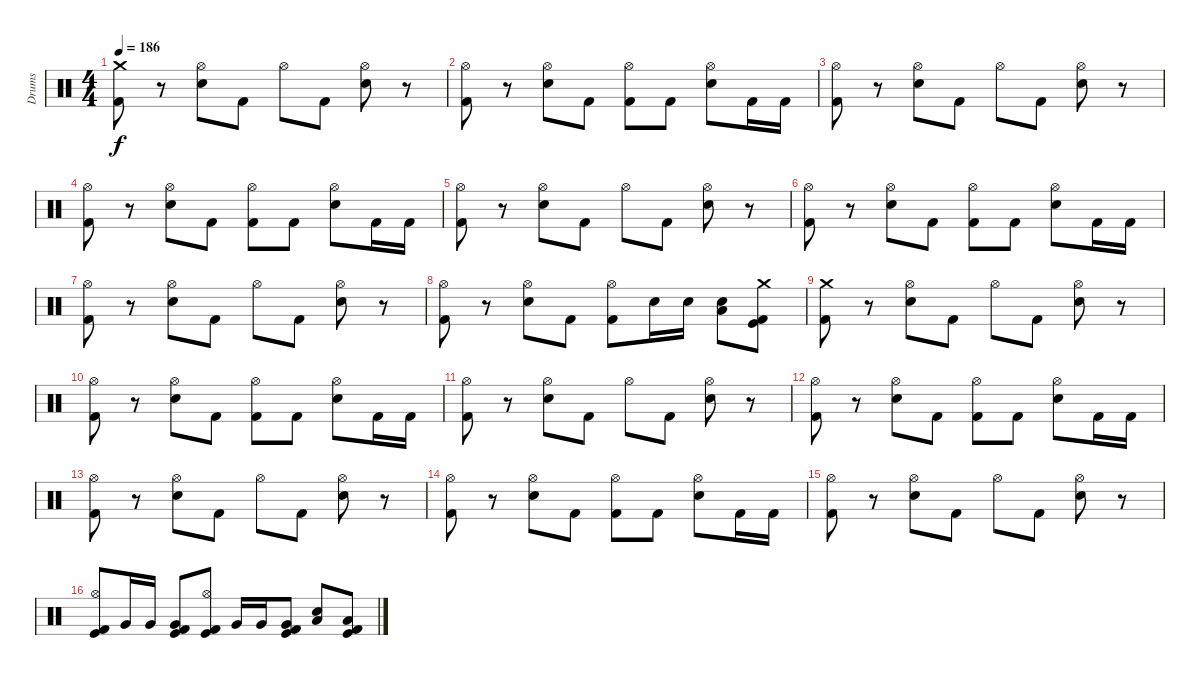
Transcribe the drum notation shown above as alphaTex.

\track ("Drums" "Drums") {instrument percussion}
\staff {score}
\articulation defaults
\ts (4 4)
\tempo 186
\clef neutral
\ks c
("Crash medium (hit)" "Kick (hit) 2").8{dy f} r.8 ("Hi-Hat (open)" "Snare (hit) 2").8 "Kick (hit) 2".8 "Hi-Hat (open)".8 "Kick (hit) 2".8 ("Hi-Hat (open)" "Snare (hit) 2").8 r.8 |
("Hi-Hat (open)" "Kick (hit) 2").8 r.8 ("Hi-Hat (open)" "Snare (hit) 2").8 "Kick (hit) 2".8 ("Hi-Hat (open)" "Kick (hit) 2").8 "Kick (hit) 2".8 ("Hi-Hat (open)" "Snare (hit) 2").8 "Kick (hit) 2".16 "Kick (hit) 2".16 |
("Hi-Hat (open)" "Kick (hit) 2").8 r.8 ("Hi-Hat (open)" "Snare (hit) 2").8 "Kick (hit) 2".8 "Hi-Hat (open)".8 "Kick (hit) 2".8 ("Hi-Hat (open)" "Snare (hit) 2").8 r.8 |
("Hi-Hat (open)" "Kick (hit) 2").8 r.8 ("Hi-Hat (open)" "Snare (hit) 2").8 "Kick (hit) 2".8 ("Hi-Hat (open)" "Kick (hit) 2").8 "Kick (hit) 2".8 ("Hi-Hat (open)" "Snare (hit) 2").8 "Kick (hit) 2".16 "Kick (hit) 2".16 |
("Hi-Hat (open)" "Kick (hit) 2").8 r.8 ("Hi-Hat (open)" "Snare (hit) 2").8 "Kick (hit) 2".8 "Hi-Hat (open)".8 "Kick (hit) 2".8 ("Hi-Hat (open)" "Snare (hit) 2").8 r.8 |
("Hi-Hat (open)" "Kick (hit) 2").8 r.8 ("Hi-Hat (open)" "Snare (hit) 2").8 "Kick (hit) 2".8 ("Hi-Hat (open)" "Kick (hit) 2").8 "Kick (hit) 2".8 ("Hi-Hat (open)" "Snare (hit) 2").8 "Kick (hit) 2".16 "Kick (hit) 2".16 |
("Hi-Hat (open)" "Kick (hit) 2").8 r.8 ("Hi-Hat (open)" "Snare (hit) 2").8 "Kick (hit) 2".8 "Hi-Hat (open)".8 "Kick (hit) 2".8 ("Hi-Hat (open)" "Snare (hit) 2").8 r.8 |
("Hi-Hat (open)" "Kick (hit) 2").8 r.8 ("Hi-Hat (open)" "Snare (hit) 2").8 "Kick (hit) 2".8 ("Hi-Hat (open)" "Kick (hit) 2").8 "Snare (hit) 2".16 "Snare (hit) 2".16 ("Low Tom (hit)" "Snare (hit) 2").8 ("Crash medium (hit)" "Kick (hit)" "Kick (hit) 2").8 |
("Crash medium (hit)" "Kick (hit) 2").8 r.8 ("Hi-Hat (open)" "Snare (hit) 2").8 "Kick (hit) 2".8 "Hi-Hat (open)".8 "Kick (hit) 2".8 ("Hi-Hat (open)" "Snare (hit) 2").8 r.8 |
("Hi-Hat (open)" "Kick (hit) 2").8 r.8 ("Hi-Hat (open)" "Snare (hit) 2").8 "Kick (hit) 2".8 ("Hi-Hat (open)" "Kick (hit) 2").8 "Kick (hit) 2".8 ("Hi-Hat (open)" "Snare (hit) 2").8 "Kick (hit) 2".16 "Kick (hit) 2".16 |
("Hi-Hat (open)" "Kick (hit) 2").8 r.8 ("Hi-Hat (open)" "Snare (hit) 2").8 "Kick (hit) 2".8 "Hi-Hat (open)".8 "Kick (hit) 2".8 ("Hi-Hat (open)" "Snare (hit) 2").8 r.8 |
("Hi-Hat (open)" "Kick (hit) 2").8 r.8 ("Hi-Hat (open)" "Snare (hit) 2").8 "Kick (hit) 2".8 ("Hi-Hat (open)" "Kick (hit) 2").8 "Kick (hit) 2".8 ("Hi-Hat (open)" "Snare (hit) 2").8 "Kick (hit) 2".16 "Kick (hit) 2".16 |
("Hi-Hat (open)" "Kick (hit) 2").8 r.8 ("Hi-Hat (open)" "Snare (hit) 2").8 "Kick (hit) 2".8 "Hi-Hat (open)".8 "Kick (hit) 2".8 ("Hi-Hat (open)" "Snare (hit) 2").8 r.8 |
("Hi-Hat (open)" "Kick (hit) 2").8 r.8 ("Hi-Hat (open)" "Snare (hit) 2").8 "Kick (hit) 2".8 ("Hi-Hat (open)" "Kick (hit) 2").8 "Kick (hit) 2".8 ("Hi-Hat (open)" "Snare (hit) 2").8 "Kick (hit) 2".16 "Kick (hit) 2".16 |
("Hi-Hat (open)" "Kick (hit) 2").8 r.8 ("Hi-Hat (open)" "Snare (hit) 2").8 "Kick (hit) 2".8 "Hi-Hat (open)".8 "Kick (hit) 2".8 ("Hi-Hat (open)" "Snare (hit) 2").8 r.8 |
("Hi-Hat (open)" "Kick (hit)" "Kick (hit) 2").8 "Very Low Tom (hit)".16 "Very Low Tom (hit)".16 ("Very Low Tom (hit)" "Kick (hit)" "Kick (hit) 2").8 ("Hi-Hat (open)" "Kick (hit)" "Kick (hit) 2").8 "Very Low Tom (hit)".16 "Very Low Tom (hit)".16 ("Very Low Tom (hit)" "Kick (hit)" "Kick (hit) 2").8 ("Low Tom (hit)" "Snare (hit) 2").8 ("Low Floor Tom (hit)" "Kick (hit)" "Kick (hit) 2").8
